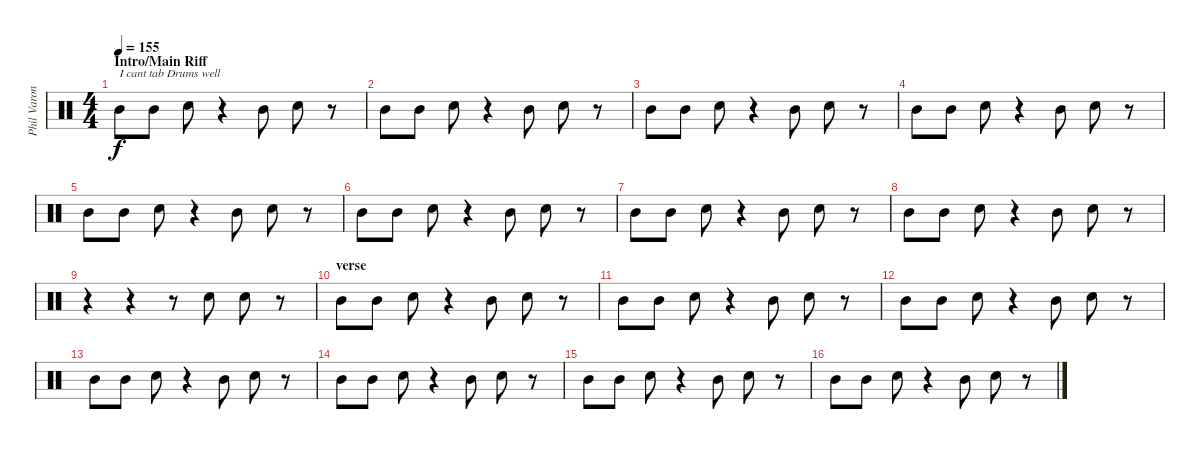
\track ("Phil Varone" "Phil Varon") {instrument percussion}
\staff {score}
\articulation defaults
\ts (4 4)
\section ("" "Intro/Main Riff")
\tempo 155
\clef neutral
\ks c "Mid Tom (hit)".8{txt "I cant tab Drums well" dy f} "Mid Tom (hit)".8 "Snare (hit) 2".8
r.4 "Mid Tom (hit)".8 "Snare (hit) 2".8 r.8 |
"Mid Tom (hit)".8 "Mid Tom (hit)".8 "Snare (hit) 2".8 r.4 "Mid Tom (hit)".8 "Snare (hit) 2".8 r.8 |
"Mid Tom (hit)".8 "Mid Tom (hit)".8 "Snare (hit) 2".8 r.4 "Mid Tom (hit)".8 "Snare (hit) 2".8 r.8 |
"Mid Tom (hit)".8 "Mid Tom (hit)".8 "Snare (hit) 2".8 r.4 "Mid Tom (hit)".8 "Snare (hit) 2".8 r.8 |
"Mid Tom (hit)".8 "Mid Tom (hit)".8 "Snare (hit) 2".8 r.4 "Mid Tom (hit)".8 "Snare (hit) 2".8 r.8 |
"Mid Tom (hit)".8 "Mid Tom (hit)".8 "Snare (hit) 2".8 r.4 "Mid Tom (hit)".8 "Snare (hit) 2".8 r.8 |
"Mid Tom (hit)".8 "Mid Tom (hit)".8 "Snare (hit) 2".8 r.4 "Mid Tom (hit)".8 "Snare (hit) 2".8 r.8 |
"Mid Tom (hit)".8 "Mid Tom (hit)".8 "Snare (hit) 2".8 r.4 "Mid Tom (hit)".8 "Snare (hit) 2".8 r.8 |
r.4 r.4 r.8 "Snare (hit) 2".8 "Snare (hit) 2".8 r.8 |
\section ("" "verse")
"Mid Tom (hit)".8 "Mid Tom (hit)".8 "Snare (hit) 2".8 r.4 "Mid Tom (hit)".8 "Snare (hit) 2".8 r.8 |
"Mid Tom (hit)".8 "Mid Tom (hit)".8 "Snare (hit) 2".8 r.4 "Mid Tom (hit)".8 "Snare (hit) 2".8 r.8 |
"Mid Tom (hit)".8 "Mid Tom (hit)".8 "Snare (hit) 2".8 r.4 "Mid Tom (hit)".8 "Snare (hit) 2".8 r.8 |
"Mid Tom (hit)".8 "Mid Tom (hit)".8 "Snare (hit) 2".8 r.4 "Mid Tom (hit)".8 "Snare (hit) 2".8 r.8 |
"Mid Tom (hit)".8 "Mid Tom (hit)".8 "Snare (hit) 2".8 r.4 "Mid Tom (hit)".8 "Snare (hit) 2".8 r.8 |
"Mid Tom (hit)".8 "Mid Tom (hit)".8 "Snare (hit) 2".8 r.4 "Mid Tom (hit)".8 "Snare (hit) 2".8 r.8 |
"Mid Tom (hit)".8 "Mid Tom (hit)".8 "Snare (hit) 2".8 r.4 "Mid Tom (hit)".8 "Snare (hit) 2".8 r.8
